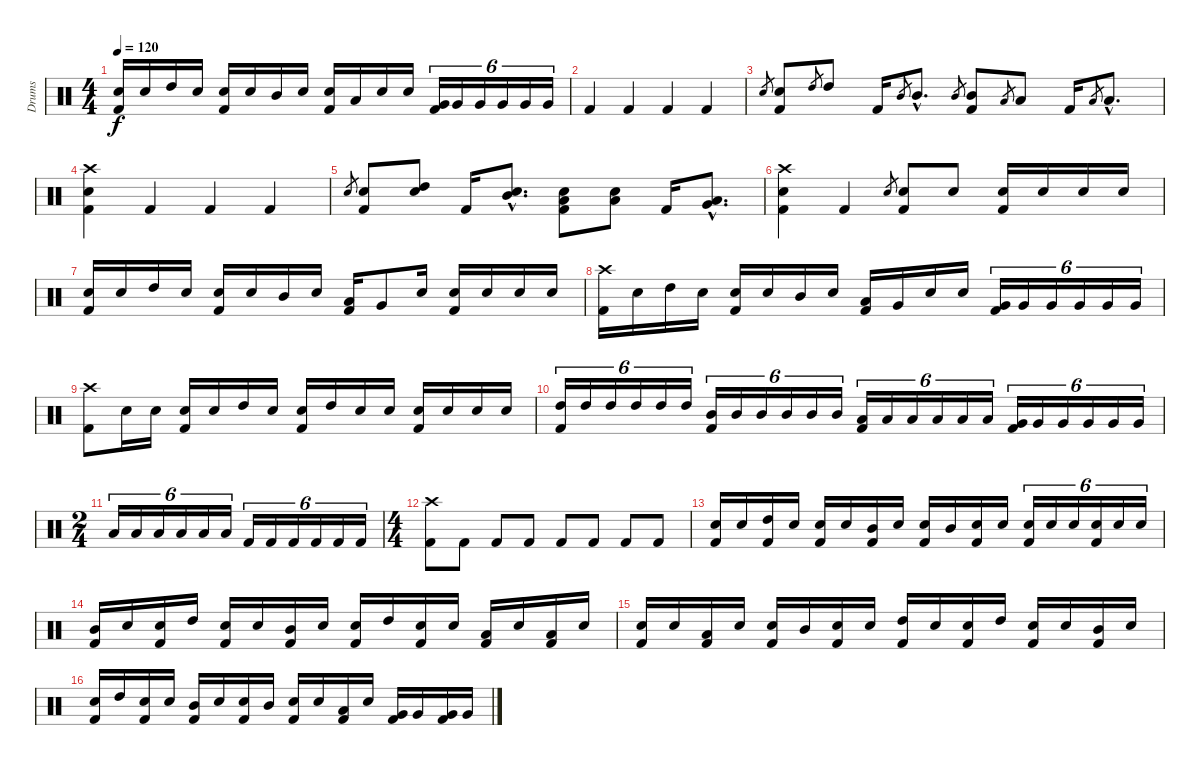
\track ("Drums" "Drums") {instrument percussion}
\staff {score}
\articulation defaults
\ts (4 4)
\tempo 120
\clef neutral
\ks c
("Electric Snare (hit)" "Kick (hit) 2").16{dy f} "Electric Snare (hit)".16 "High Tom (hit)".16 "Electric Snare (hit)".16 ("Electric Snare (hit)" "Kick (hit) 2").16 "Electric Snare (hit)".16 "Mid Tom (hit)".16 "Electric Snare (hit)".16 ("Electric Snare (hit)" "Kick (hit) 2").16 "Low Tom (hit)".16 "Electric Snare (hit)".16 "Electric Snare (hit)".16 ("Very Low Tom (hit)" "Kick (hit) 2").16{tu (6 4)} "Very Low Tom (hit)".16{tu (6 4)} "Very Low Tom (hit)".16{tu (6 4)} "Very Low Tom (hit)".16{tu (6 4)} "Very Low Tom (hit)".16{tu (6 4)} "Very Low Tom (hit)".16{tu (6 4)} |
"Kick (hit) 2".4 "Kick (hit) 2".4 "Kick (hit) 2".4 "Kick (hit) 2".4 |
"Electric Snare (hit)".8{gr} ("Electric Snare (hit)" "Kick (hit) 2").8 "High Tom (hit)".8{gr} "High Tom (hit)".8 "Kick (hit) 2".16 "Mid Tom (hit)".8{gr} "Mid Tom (hit)"{hac}.8{d} "Mid Tom (hit)".8{gr} ("Mid Tom (hit)" "Kick (hit) 2").8 "Low Tom (hit)".8{gr} "Low Tom (hit)".8 "Kick (hit) 2".16 "Low Tom (hit)".8{gr} "Low Tom (hit)"{hac}.8{d} |
("Crash high (hit)" "Electric Snare (hit)" "Kick (hit) 2").4 "Kick (hit) 2".4 "Kick (hit) 2".4 "Kick (hit) 2".4 |
"Electric Snare (hit)".8{gr} ("Electric Snare (hit)" "Kick (hit) 2").8 ("High Tom (hit)" "Electric Snare (hit)").8 "Kick (hit) 2".16 ("Mid Tom (hit)"{hac} "Electric Snare (hit)"{hac}).8{d} ("Low Tom (hit)" "Electric Snare (hit)" "Kick (hit) 2").8 ("Low Tom (hit)" "Electric Snare (hit)").8 "Kick (hit) 2".16 ("Low Tom (hit)"{hac} "Very Low Tom (hit)"{hac}).8{d} |
("Crash high (hit)" "Electric Snare (hit)" "Kick (hit) 2").4 "Kick (hit) 2".4 "Electric Snare (hit)".8{gr} ("Electric Snare (hit)" "Kick (hit) 2").8 "Electric Snare (hit)".8 ("Electric Snare (hit)" "Kick (hit) 2").16 "Electric Snare (hit)".16 "Electric Snare (hit)".16 "Electric Snare (hit)".16 |
("Electric Snare (hit)" "Kick (hit) 2").16 "Electric Snare (hit)".16 "High Tom (hit)".16 "Electric Snare (hit)".16 ("Electric Snare (hit)" "Kick (hit) 2").16 "Electric Snare (hit)".16 "Mid Tom (hit)".16 "Electric Snare (hit)".16 ("Low Tom (hit)" "Kick (hit) 2").16 "Very Low Tom (hit)".8 "Electric Snare (hit)".16 ("Electric Snare (hit)" "Kick (hit) 2").16 "Electric Snare (hit)".16 "Electric Snare (hit)".16 "Electric Snare (hit)".16 |
("Crash high (hit)" "Kick (hit) 2").16 "Electric Snare (hit)".16 "High Tom (hit)".16 "Electric Snare (hit)".16 ("Electric Snare (hit)" "Kick (hit) 2").16 "Electric Snare (hit)".16 "Mid Tom (hit)".16 "Electric Snare (hit)".16 ("Low Tom (hit)" "Kick (hit) 2").16 "Very Low Tom (hit)".16 "Electric Snare (hit)".16 "Electric Snare (hit)".16 ("Very Low Tom (hit)" "Kick (hit) 2").16{tu (6 4)} "Very Low Tom (hit)".16{tu (6 4)} "Very Low Tom (hit)".16{tu (6 4)} "Very Low Tom (hit)".16{tu (6 4)} "Very Low Tom (hit)".16{tu (6 4)} "Very Low Tom (hit)".16{tu (6 4)} |
("Crash high (hit)" "Kick (hit) 2").8 "Electric Snare (hit)".16 "Electric Snare (hit)".16 ("Electric Snare (hit)" "Kick (hit) 2").16 "Electric Snare (hit)".16 "High Tom (hit)".16 "Electric Snare (hit)".16 ("Electric Snare (hit)" "Kick (hit) 2").16 "High Tom (hit)".16 "Electric Snare (hit)".16 "Electric Snare (hit)".16 ("Electric Snare (hit)" "Kick (hit) 2").16 "Electric Snare (hit)".16 "Electric Snare (hit)".16 "Electric Snare (hit)".16 |
("High Tom (hit)" "Kick (hit) 2").16{tu (6 4)} "High Tom (hit)".16{tu (6 4)} "High Tom (hit)".16{tu (6 4)} "High Tom (hit)".16{tu (6 4)} "High Tom (hit)".16{tu (6 4)} "High Tom (hit)".16{tu (6 4)} ("Mid Tom (hit)" "Kick (hit) 2").16{tu (6 4)} "Mid Tom (hit)".16{tu (6 4)} "Mid Tom (hit)".16{tu (6 4)} "Mid Tom (hit)".16{tu (6 4)} "Mid Tom (hit)".16{tu (6 4)} "Mid Tom (hit)".16{tu (6 4)} ("Low Tom (hit)" "Kick (hit) 2").16{tu (6 4)} "Low Tom (hit)".16{tu (6 4)} "Low Tom (hit)".16{tu (6 4)} "Low Tom (hit)".16{tu (6 4)} "Low Tom (hit)".16{tu (6 4)} "Low Tom (hit)".16{tu (6 4)} ("Very Low Tom (hit)" "Kick (hit) 2").16{tu (6 4)} "Very Low Tom (hit)".16{tu (6 4)} "Very Low Tom (hit)".16{tu (6 4)} "Very Low Tom (hit)".16{tu (6 4)} "Very Low Tom (hit)".16{tu (6 4)} "Very Low Tom (hit)".16{tu (6 4)} |
\ts (2 4)
"Low Floor Tom (hit)".16{tu (6 4)} "Low Floor Tom (hit)".16{tu (6 4)} "Low Floor Tom (hit)".16{tu (6 4)} "Low Floor Tom (hit)".16{tu (6 4)} "Low Floor Tom (hit)".16{tu (6 4)} "Low Floor Tom (hit)".16{tu (6 4)} "Kick (hit) 2".16{tu (6 4)} "Kick (hit) 2".16{tu (6 4)} "Kick (hit) 2".16{tu (6 4)} "Kick (hit) 2".16{tu (6 4)} "Kick (hit) 2".16{tu (6 4)} "Kick (hit) 2".16{tu (6 4)} |
\ts (4 4)
("Crash high (hit)" "Kick (hit) 2").8 "Kick (hit) 2".8 "Kick (hit) 2".8 "Kick (hit) 2".8 "Kick (hit) 2".8 "Kick (hit) 2".8 "Kick (hit) 2".8 "Kick (hit) 2".8 |
("Electric Snare (hit)" "Kick (hit) 2").16 "Electric Snare (hit)".16 ("High Tom (hit)" "Kick (hit) 2").16 "Electric Snare (hit)".16 ("Electric Snare (hit)" "Kick (hit) 2").16 "Electric Snare (hit)".16 ("Mid Tom (hit)" "Kick (hit) 2").16 "Electric Snare (hit)".16 ("Electric Snare (hit)" "Kick (hit) 2").16 "Mid Tom (hit)".16 ("Electric Snare (hit)" "Kick (hit) 2").16 "Electric Snare (hit)".16 ("Electric Snare (hit)" "Kick (hit) 2").16{tu (6 4)} "Electric Snare (hit)".16{tu (6 4)} "Electric Snare (hit)".16{tu (6 4)} ("Electric Snare (hit)" "Kick (hit) 2").16{tu (6 4)} "Electric Snare (hit)".16{tu (6 4)} "Electric Snare (hit)".16{tu (6 4)} |
("Mid Tom (hit)" "Kick (hit) 2").16 "Electric Snare (hit)".16 ("Electric Snare (hit)" "Kick (hit) 2").16 "High Tom (hit)".16 ("Electric Snare (hit)" "Kick (hit) 2").16 "Electric Snare (hit)".16 ("Mid Tom (hit)" "Kick (hit) 2").16 "Electric Snare (hit)".16 ("Electric Snare (hit)" "Kick (hit) 2").16 "High Tom (hit)".16 ("Electric Snare (hit)" "Kick (hit) 2").16 "Electric Snare (hit)".16 ("Low Tom (hit)" "Kick (hit) 2").16 "Electric Snare (hit)".16 ("Low Tom (hit)" "Kick (hit) 2").16 "Electric Snare (hit)".16 |
("Electric Snare (hit)" "Kick (hit) 2").16 "Electric Snare (hit)".16 ("Low Tom (hit)" "Kick (hit) 2").16 "Electric Snare (hit)".16 ("Electric Snare (hit)" "Kick (hit) 2").16 "Mid Tom (hit)".16 ("Electric Snare (hit)" "Kick (hit) 2").16 "Electric Snare (hit)".16 ("High Tom (hit)" "Kick (hit) 2").16 "Electric Snare (hit)".16 ("Electric Snare (hit)" "Kick (hit) 2").16 "High Tom (hit)".16 ("Electric Snare (hit)" "Kick (hit) 2").16 "Electric Snare (hit)".16 ("Mid Tom (hit)" "Kick (hit) 2").16 "Electric Snare (hit)".16 |
("Electric Snare (hit)" "Kick (hit) 2").16 "High Tom (hit)".16 ("Electric Snare (hit)" "Kick (hit) 2").16 "Electric Snare (hit)".16 ("Mid Tom (hit)" "Kick (hit) 2").16 "Electric Snare (hit)".16 ("Electric Snare (hit)" "Kick (hit) 2").16 "Mid Tom (hit)".16 ("Electric Snare (hit)" "Kick (hit) 2").16 "Electric Snare (hit)".16 ("Low Tom (hit)" "Kick (hit) 2").16 "Electric Snare (hit)".16 ("Very Low Tom (hit)" "Kick (hit) 2").16 "Very Low Tom (hit)".16 ("Very Low Tom (hit)" "Kick (hit) 2").16 "Very Low Tom (hit)".16
